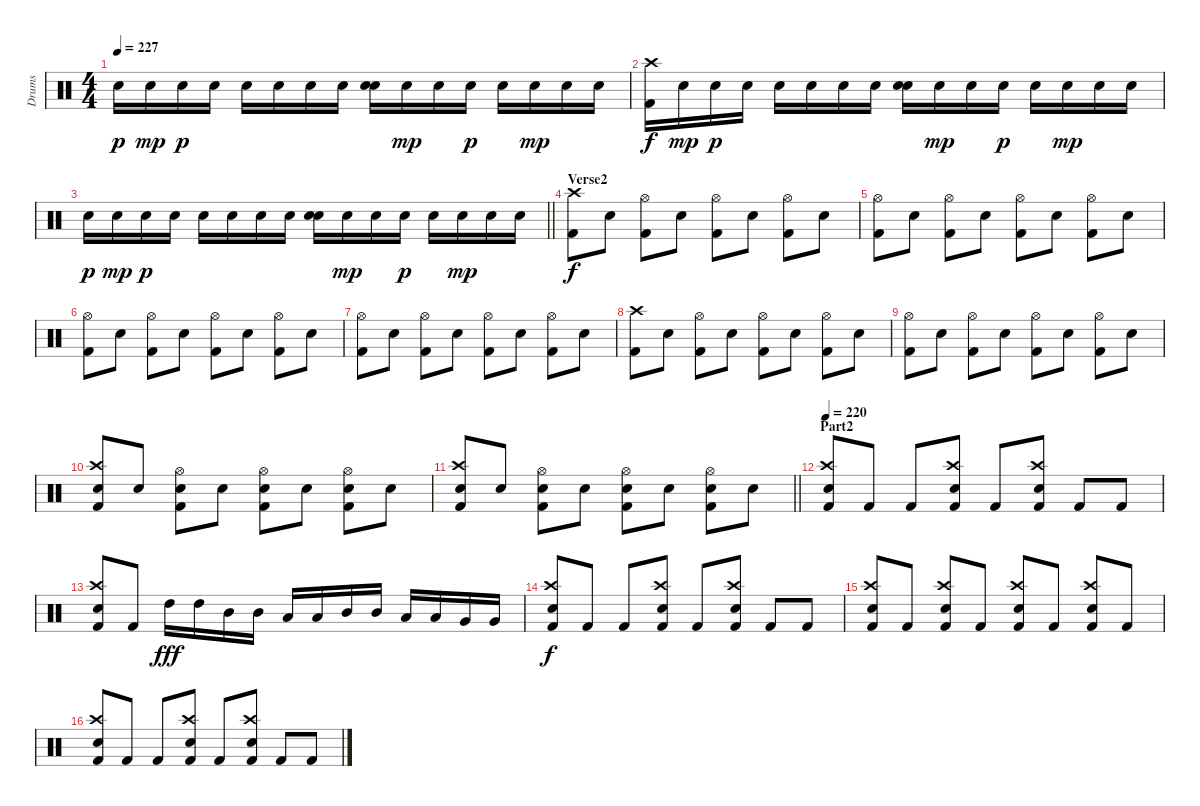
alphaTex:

\track ("Drums" "Drums") {instrument percussion}
\staff {score}
\articulation defaults
\ts (4 4)
\tempo 227
\clef neutral
\ks c "Snare (hit) 2".16{dy p} "Snare (hit) 2".16{dy mp} "Snare (hit) 2".16{dy p} "Snare (hit) 2".16 "Snare (hit) 2".16 "Snare (hit) 2".16 "Snare (hit) 2".16 "Snare (hit) 2".16
("Electric Snare (hit)" "Snare (hit) 2").16 "Snare (hit) 2".16{dy mp} "Snare (hit) 2".16 "Snare (hit) 2".16{dy p} "Snare (hit) 2".16 "Snare (hit) 2".16{dy mp} "Snare (hit) 2".16 "Snare (hit) 2".16 |
("Crash high (hit)" "Kick (hit) 2").16{dy f} "Snare (hit) 2".16{dy mp} "Snare (hit) 2".16{dy p} "Snare (hit) 2".16 "Snare (hit) 2".16 "Snare (hit) 2".16 "Snare (hit) 2".16 "Snare (hit) 2".16 ("Electric Snare (hit)" "Snare (hit) 2").16 "Snare (hit) 2".16{dy mp} "Snare (hit) 2".16 "Snare (hit) 2".16{dy p} "Snare (hit) 2".16 "Snare (hit) 2".16{dy mp} "Snare (hit) 2".16 "Snare (hit) 2".16 |
\barLineRight lightlight "Snare (hit) 2".16{dy p} "Snare (hit) 2".16{dy mp} "Snare (hit) 2".16{dy p} "Snare (hit) 2".16 "Snare (hit) 2".16 "Snare (hit) 2".16 "Snare (hit) 2".16 "Snare (hit) 2".16
("Electric Snare (hit)" "Snare (hit) 2").16 "Snare (hit) 2".16{dy mp} "Snare (hit) 2".16 "Snare (hit) 2".16{dy p} "Snare (hit) 2".16 "Snare (hit) 2".16{dy mp} "Snare (hit) 2".16 "Snare (hit) 2".16 |
\section ("" "Verse2")
("Crash high (hit)" "Kick (hit) 2").8{dy f} "Electric Snare (hit)".8 ("Hi-Hat (open)" "Kick (hit) 2").8 "Electric Snare (hit)".8 ("Hi-Hat (open)" "Kick (hit) 2").8 "Electric Snare (hit)".8 ("Hi-Hat (open)" "Kick (hit) 2").8 "Electric Snare (hit)".8 |
("Hi-Hat (open)" "Kick (hit) 2").8 "Electric Snare (hit)".8 ("Hi-Hat (open)" "Kick (hit) 2").8 "Electric Snare (hit)".8 ("Hi-Hat (open)" "Kick (hit) 2").8 "Electric Snare (hit)".8 ("Hi-Hat (open)" "Kick (hit) 2").8 "Electric Snare (hit)".8 |
("Hi-Hat (open)" "Kick (hit) 2").8 "Electric Snare (hit)".8 ("Hi-Hat (open)" "Kick (hit) 2").8 "Electric Snare (hit)".8 ("Hi-Hat (open)" "Kick (hit) 2").8 "Electric Snare (hit)".8 ("Hi-Hat (open)" "Kick (hit) 2").8 "Electric Snare (hit)".8 |
("Hi-Hat (open)" "Kick (hit) 2").8 "Electric Snare (hit)".8 ("Hi-Hat (open)" "Kick (hit) 2").8 "Electric Snare (hit)".8 ("Hi-Hat (open)" "Kick (hit) 2").8 "Electric Snare (hit)".8 ("Hi-Hat (open)" "Kick (hit) 2").8 "Electric Snare (hit)".8 |
("Crash high (hit)" "Kick (hit) 2").8 "Electric Snare (hit)".8 ("Hi-Hat (open)" "Kick (hit) 2").8 "Electric Snare (hit)".8 ("Hi-Hat (open)" "Kick (hit) 2").8 "Electric Snare (hit)".8 ("Hi-Hat (open)" "Kick (hit) 2").8 "Electric Snare (hit)".8 |
("Hi-Hat (open)" "Kick (hit) 2").8 "Electric Snare (hit)".8 ("Hi-Hat (open)" "Kick (hit) 2").8 "Electric Snare (hit)".8 ("Hi-Hat (open)" "Kick (hit) 2").8 "Electric Snare (hit)".8 ("Hi-Hat (open)" "Kick (hit) 2").8 "Electric Snare (hit)".8 |
("Crash high (hit)" "Electric Snare (hit)" "Kick (hit) 2").8 "Electric Snare (hit)".8 ("Hi-Hat (open)" "Electric Snare (hit)" "Kick (hit) 2").8 "Electric Snare (hit)".8 ("Hi-Hat (open)" "Electric Snare (hit)" "Kick (hit) 2").8 "Electric Snare (hit)".8 ("Hi-Hat (open)" "Electric Snare (hit)" "Kick (hit) 2").8 "Electric Snare (hit)".8 |
\barLineRight lightlight
("Crash high (hit)" "Electric Snare (hit)" "Kick (hit) 2").8 "Electric Snare (hit)".8 ("Hi-Hat (open)" "Electric Snare (hit)" "Kick (hit) 2").8 "Electric Snare (hit)".8 ("Hi-Hat (open)" "Electric Snare (hit)" "Kick (hit) 2").8 "Electric Snare (hit)".8 ("Hi-Hat (open)" "Electric Snare (hit)" "Kick (hit) 2").8 "Electric Snare (hit)".8 |
\section ("" "Part2")
\tempo 220
("Crash high (hit)" "Electric Snare (hit)" "Kick (hit) 2").8 "Kick (hit) 2".8 "Kick (hit) 2".8 ("Crash high (hit)" "Electric Snare (hit)" "Kick (hit) 2").8 "Kick (hit) 2".8 ("Crash high (hit)" "Electric Snare (hit)" "Kick (hit) 2").8 "Kick (hit) 2".8 "Kick (hit) 2".8 |
("Crash high (hit)" "Electric Snare (hit)" "Kick (hit) 2").8 "Kick (hit) 2".8 "High Tom (hit)".16{dy fff} "High Tom (hit)".16 "Mid Tom (hit)".16 "Mid Tom (hit)".16 "Low Tom (hit)".16 "Low Tom (hit)".16 "Mid Tom (hit)".16 "Mid Tom (hit)".16 "Low Tom (hit)".16 "Low Tom (hit)".16 "Very Low Tom (hit)".16 "Very Low Tom (hit)".16 |
("Crash high (hit)" "Electric Snare (hit)" "Kick (hit) 2").8{dy f} "Kick (hit) 2".8 "Kick (hit) 2".8 ("Crash high (hit)" "Electric Snare (hit)" "Kick (hit) 2").8 "Kick (hit) 2".8 ("Crash high (hit)" "Electric Snare (hit)" "Kick (hit) 2").8 "Kick (hit) 2".8 "Kick (hit) 2".8 |
("Crash high (hit)" "Electric Snare (hit)" "Kick (hit) 2").8 "Kick (hit) 2".8 ("Crash high (hit)" "Electric Snare (hit)" "Kick (hit) 2").8 "Kick (hit) 2".8 ("Crash high (hit)" "Electric Snare (hit)" "Kick (hit) 2").8 "Kick (hit) 2".8 ("Crash high (hit)" "Electric Snare (hit)" "Kick (hit) 2").8 "Kick (hit) 2".8 |
("Crash high (hit)" "Electric Snare (hit)" "Kick (hit) 2").8 "Kick (hit) 2".8 "Kick (hit) 2".8 ("Crash high (hit)" "Electric Snare (hit)" "Kick (hit) 2").8 "Kick (hit) 2".8 ("Crash high (hit)" "Electric Snare (hit)" "Kick (hit) 2").8 "Kick (hit) 2".8 "Kick (hit) 2".8
